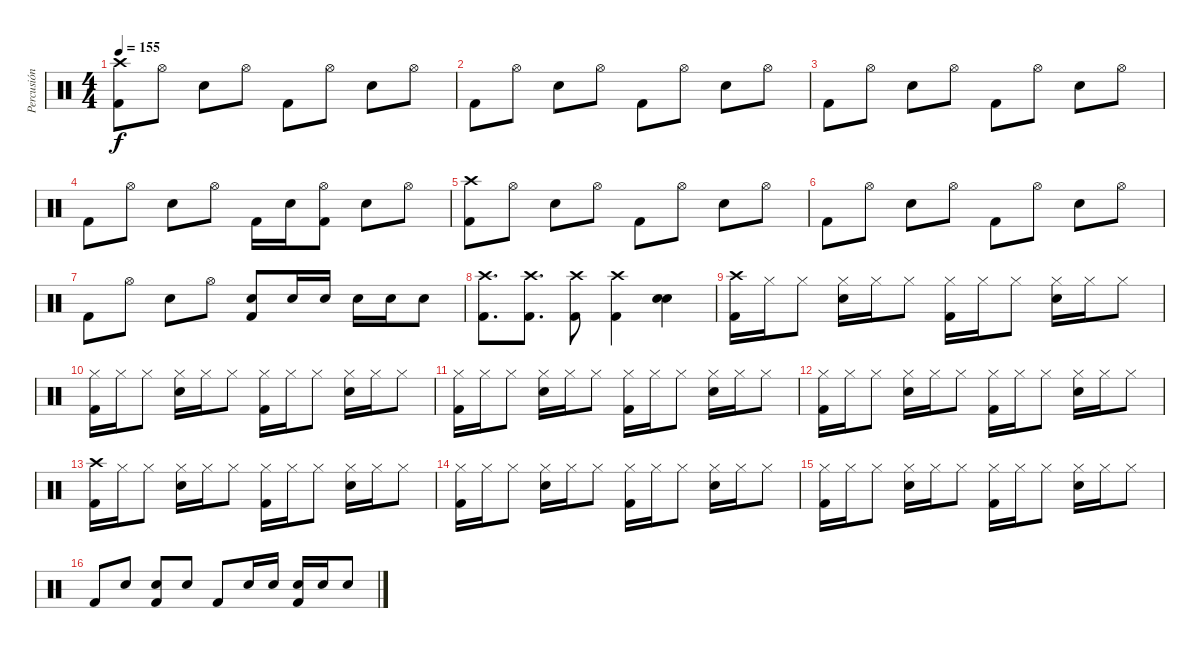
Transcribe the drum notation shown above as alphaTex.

\track ("Percusión" "Percusión") {instrument percussion}
\staff {score}
\articulation defaults
\ts (4 4)
\tempo 155
\clef neutral
\ks c
("Crash high (hit)" "Kick (hit) 2").8{dy f} "Hi-Hat (open)".8 "Electric Snare (hit)".8 "Hi-Hat (open)".8 "Kick (hit) 2".8 "Hi-Hat (open)".8 "Electric Snare (hit)".8 "Hi-Hat (open)".8 |
"Kick (hit) 2".8 "Hi-Hat (open)".8 "Electric Snare (hit)".8 "Hi-Hat (open)".8 "Kick (hit) 2".8 "Hi-Hat (open)".8 "Electric Snare (hit)".8 "Hi-Hat (open)".8 |
"Kick (hit) 2".8 "Hi-Hat (open)".8 "Electric Snare (hit)".8 "Hi-Hat (open)".8 "Kick (hit) 2".8 "Hi-Hat (open)".8 "Electric Snare (hit)".8 "Hi-Hat (open)".8 |
"Kick (hit) 2".8 "Hi-Hat (open)".8 "Electric Snare (hit)".8 "Hi-Hat (open)".8 "Kick (hit) 2".16 "Electric Snare (hit)".16 ("Hi-Hat (open)" "Kick (hit) 2").8 "Electric Snare (hit)".8 "Hi-Hat (open)".8 |
("Crash high (hit)" "Kick (hit) 2").8 "Hi-Hat (open)".8 "Electric Snare (hit)".8 "Hi-Hat (open)".8 "Kick (hit) 2".8 "Hi-Hat (open)".8 "Electric Snare (hit)".8 "Hi-Hat (open)".8 |
"Kick (hit) 2".8 "Hi-Hat (open)".8 "Electric Snare (hit)".8 "Hi-Hat (open)".8 "Kick (hit) 2".8 "Hi-Hat (open)".8 "Electric Snare (hit)".8 "Hi-Hat (open)".8 |
"Kick (hit) 2".8 "Hi-Hat (open)".8 "Electric Snare (hit)".8 "Hi-Hat (open)".8 ("Electric Snare (hit)" "Kick (hit) 2").8 "Electric Snare (hit)".16 "Electric Snare (hit)".16 "Electric Snare (hit)".16 "Electric Snare (hit)".16 "Electric Snare (hit)".8 |
("Crash high (hit)" "Kick (hit) 2").8{d} ("Crash high (hit)" "Kick (hit) 2").8{d} ("Crash high (hit)" "Kick (hit) 2").8 ("Crash high (hit)" "Kick (hit) 2").4 ("Electric Snare (hit)" "Electric Snare (hit)").4 |
("Crash high (hit)" "Kick (hit) 2").16 "Hi-Hat (closed)".16 "Hi-Hat (closed)".8 ("Hi-Hat (closed)" "Electric Snare (hit)").16 "Hi-Hat (closed)".16 "Hi-Hat (closed)".8 ("Hi-Hat (closed)" "Kick (hit) 2").16 "Hi-Hat (closed)".16 "Hi-Hat (closed)".8 ("Hi-Hat (closed)" "Electric Snare (hit)").16 "Hi-Hat (closed)".16 "Hi-Hat (closed)".8 |
("Hi-Hat (closed)" "Kick (hit) 2").16 "Hi-Hat (closed)".16 "Hi-Hat (closed)".8 ("Hi-Hat (closed)" "Electric Snare (hit)").16 "Hi-Hat (closed)".16 "Hi-Hat (closed)".8 ("Hi-Hat (closed)" "Kick (hit) 2").16 "Hi-Hat (closed)".16 "Hi-Hat (closed)".8 ("Hi-Hat (closed)" "Electric Snare (hit)").16 "Hi-Hat (closed)".16 "Hi-Hat (closed)".8 |
("Hi-Hat (closed)" "Kick (hit) 2").16 "Hi-Hat (closed)".16 "Hi-Hat (closed)".8 ("Hi-Hat (closed)" "Electric Snare (hit)").16 "Hi-Hat (closed)".16 "Hi-Hat (closed)".8 ("Hi-Hat (closed)" "Kick (hit) 2").16 "Hi-Hat (closed)".16 "Hi-Hat (closed)".8 ("Hi-Hat (closed)" "Electric Snare (hit)").16 "Hi-Hat (closed)".16 "Hi-Hat (closed)".8 |
("Hi-Hat (closed)" "Kick (hit) 2").16 "Hi-Hat (closed)".16 "Hi-Hat (closed)".8 ("Hi-Hat (closed)" "Electric Snare (hit)").16 "Hi-Hat (closed)".16 "Hi-Hat (closed)".8 ("Hi-Hat (closed)" "Kick (hit) 2").16 "Hi-Hat (closed)".16 "Hi-Hat (closed)".8 ("Hi-Hat (closed)" "Electric Snare (hit)").16 "Hi-Hat (closed)".16 "Hi-Hat (closed)".8 |
("Crash high (hit)" "Kick (hit) 2").16 "Hi-Hat (closed)".16 "Hi-Hat (closed)".8 ("Hi-Hat (closed)" "Electric Snare (hit)").16 "Hi-Hat (closed)".16 "Hi-Hat (closed)".8 ("Hi-Hat (closed)" "Kick (hit) 2").16 "Hi-Hat (closed)".16 "Hi-Hat (closed)".8 ("Hi-Hat (closed)" "Electric Snare (hit)").16 "Hi-Hat (closed)".16 "Hi-Hat (closed)".8 |
("Hi-Hat (closed)" "Kick (hit) 2").16 "Hi-Hat (closed)".16 "Hi-Hat (closed)".8 ("Hi-Hat (closed)" "Electric Snare (hit)").16 "Hi-Hat (closed)".16 "Hi-Hat (closed)".8 ("Hi-Hat (closed)" "Kick (hit) 2").16 "Hi-Hat (closed)".16 "Hi-Hat (closed)".8 ("Hi-Hat (closed)" "Electric Snare (hit)").16 "Hi-Hat (closed)".16 "Hi-Hat (closed)".8 |
("Hi-Hat (closed)" "Kick (hit) 2").16 "Hi-Hat (closed)".16 "Hi-Hat (closed)".8 ("Hi-Hat (closed)" "Electric Snare (hit)").16 "Hi-Hat (closed)".16 "Hi-Hat (closed)".8 ("Hi-Hat (closed)" "Kick (hit) 2").16 "Hi-Hat (closed)".16 "Hi-Hat (closed)".8 ("Hi-Hat (closed)" "Electric Snare (hit)").16 "Hi-Hat (closed)".16 "Hi-Hat (closed)".8 |
"Kick (hit) 2".8 "Electric Snare (hit)".8 ("Electric Snare (hit)" "Kick (hit) 2").8 "Electric Snare (hit)".8 "Kick (hit) 2".8 "Electric Snare (hit)".16 "Electric Snare (hit)".16 ("Electric Snare (hit)" "Kick (hit) 2").16 "Electric Snare (hit)".16 "Electric Snare (hit)".8
